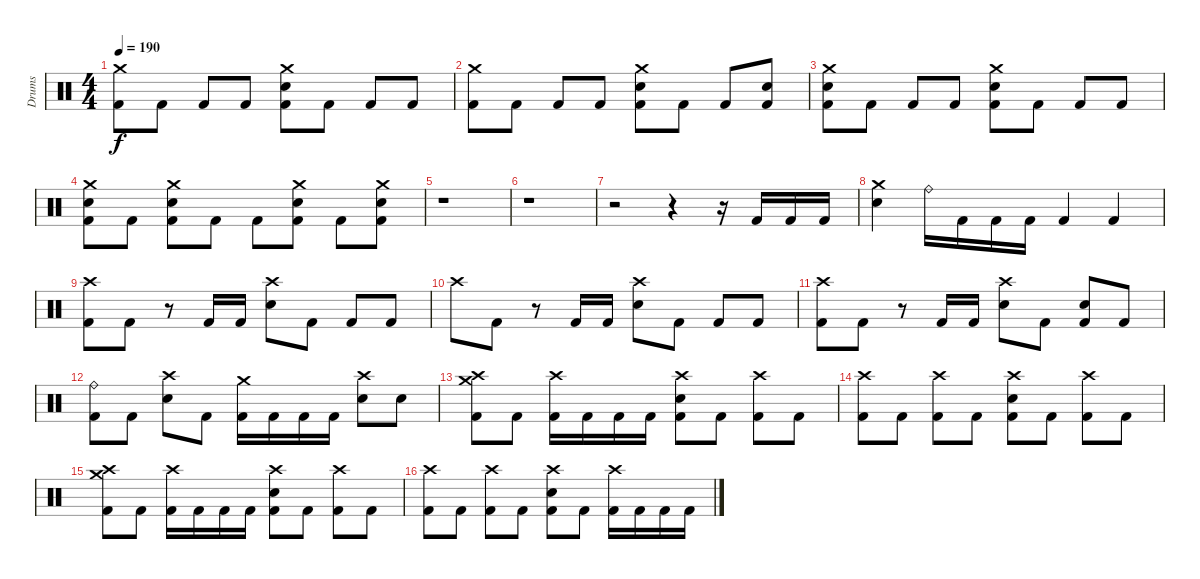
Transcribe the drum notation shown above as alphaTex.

\track ("Drums" "Drums") {instrument percussion}
\staff {score}
\articulation defaults
\ts (4 4)
\tempo 190
\clef neutral
\ks c
("Crash medium (hit)" "Kick (hit) 2").8{dy f} "Kick (hit) 2".8 "Kick (hit) 2".8 "Kick (hit) 2".8 ("Crash medium (hit)" "Electric Snare (hit)" "Kick (hit) 2").8 "Kick (hit) 2".8 "Kick (hit) 2".8 "Kick (hit) 2".8 |
("Crash medium (hit)" "Kick (hit) 2").8 "Kick (hit) 2".8 "Kick (hit) 2".8 "Kick (hit) 2".8 ("Crash medium (hit)" "Electric Snare (hit)" "Kick (hit) 2").8 "Kick (hit) 2".8 "Kick (hit) 2".8 ("Electric Snare (hit)" "Kick (hit) 2").8 |
("Crash medium (hit)" "Electric Snare (hit)" "Kick (hit) 2").8 "Kick (hit) 2".8 "Kick (hit) 2".8 "Kick (hit) 2".8 ("Crash medium (hit)" "Electric Snare (hit)" "Kick (hit) 2").8 "Kick (hit) 2".8 "Kick (hit) 2".8 "Kick (hit) 2".8 |
("Crash medium (hit)" "Electric Snare (hit)" "Kick (hit) 2").8 "Kick (hit) 2".8 ("Crash medium (hit)" "Electric Snare (hit)" "Kick (hit) 2").8 "Kick (hit) 2".8 "Kick (hit) 2".8 ("Crash medium (hit)" "Electric Snare (hit)" "Kick (hit) 2").8 "Kick (hit) 2".8 ("Crash medium (hit)" "Electric Snare (hit)" "Kick (hit) 2").8 |
r.1 |
r.1 |
r.2 r.4 r.16 "Kick (hit) 2".16 "Kick (hit) 2".16 "Kick (hit) 2".16 |
("Crash medium (hit)" "Electric Snare (hit)").4 "Ride (bell)".16 "Kick (hit) 2".16 "Kick (hit) 2".16 "Kick (hit) 2".16 "Kick (hit) 2".4 "Kick (hit) 2".4 |
("Crash high (hit)" "Kick (hit) 2").8 "Kick (hit) 2".8 r.8 "Kick (hit) 2".16 "Kick (hit) 2".16 ("Crash high (hit)" "Electric Snare (hit)").8 "Kick (hit) 2".8 "Kick (hit) 2".8 "Kick (hit) 2".8 |
"Crash high (hit)".8 "Kick (hit) 2".8 r.8 "Kick (hit) 2".16 "Kick (hit) 2".16 ("Crash high (hit)" "Electric Snare (hit)").8 "Kick (hit) 2".8 "Kick (hit) 2".8 "Kick (hit) 2".8 |
("Crash high (hit)" "Kick (hit) 2").8 "Kick (hit) 2".8 r.8 "Kick (hit) 2".16 "Kick (hit) 2".16 ("Crash high (hit)" "Electric Snare (hit)").8 "Kick (hit) 2".8 ("Electric Snare (hit)" "Kick (hit) 2").8 "Kick (hit) 2".8 |
("Ride (bell)" "Kick (hit) 2").8 "Kick (hit) 2".8 ("Crash high (hit)" "Electric Snare (hit)").8 "Kick (hit) 2".8 ("Crash medium (hit)" "Kick (hit) 2").16 "Kick (hit) 2".16 "Kick (hit) 2".16 "Kick (hit) 2".16 ("Crash high (hit)" "Electric Snare (hit)").8 "Electric Snare (hit)".8 |
("Crash high (hit)" "Crash medium (hit)" "Kick (hit) 2").8 "Kick (hit) 2".8 ("Crash high (hit)" "Kick (hit) 2").16 "Kick (hit) 2".16 "Kick (hit) 2".16 "Kick (hit) 2".16 ("Crash high (hit)" "Electric Snare (hit)" "Kick (hit) 2").8 "Kick (hit) 2".8 ("Crash high (hit)" "Kick (hit) 2").8 "Kick (hit) 2".8 |
("Crash high (hit)" "Kick (hit) 2").8 "Kick (hit) 2".8 ("Crash high (hit)" "Kick (hit) 2").8 "Kick (hit) 2".8 ("Crash high (hit)" "Electric Snare (hit)" "Kick (hit) 2").8 "Kick (hit) 2".8 ("Crash high (hit)" "Kick (hit) 2").8 "Kick (hit) 2".8 |
("Crash high (hit)" "Crash medium (hit)" "Kick (hit) 2").8 "Kick (hit) 2".8 ("Crash high (hit)" "Kick (hit) 2").16 "Kick (hit) 2".16 "Kick (hit) 2".16 "Kick (hit) 2".16 ("Crash high (hit)" "Electric Snare (hit)" "Kick (hit) 2").8 "Kick (hit) 2".8 ("Crash high (hit)" "Kick (hit) 2").8 "Kick (hit) 2".8 |
("Crash high (hit)" "Kick (hit) 2").8 "Kick (hit) 2".8 ("Crash high (hit)" "Kick (hit) 2").8 "Kick (hit) 2".8 ("Crash high (hit)" "Electric Snare (hit)" "Kick (hit) 2").8 "Kick (hit) 2".8 ("Crash high (hit)" "Kick (hit) 2").16 "Kick (hit) 2".16 "Kick (hit) 2".16 "Kick (hit) 2".16
